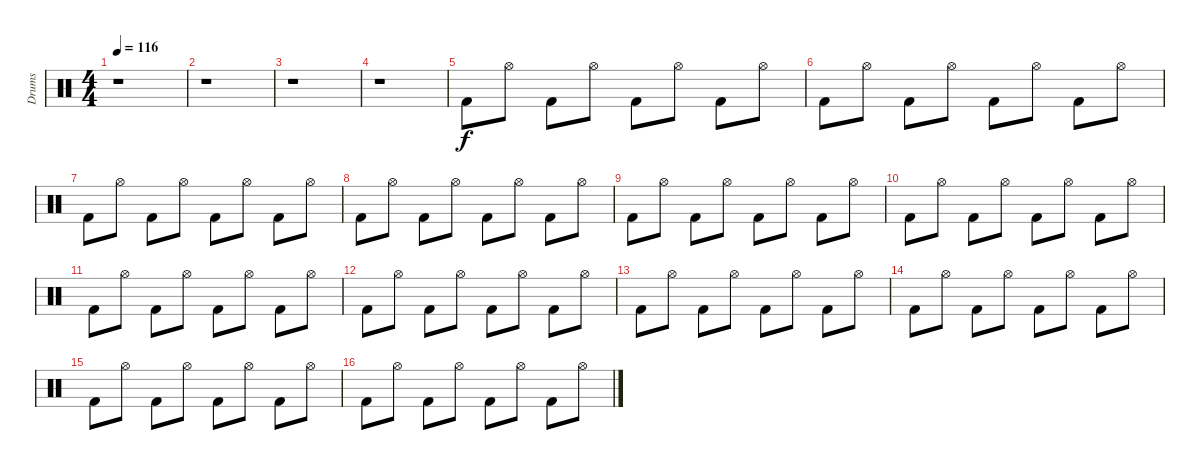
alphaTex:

\track ("Drums" "Drums") {instrument percussion}
\staff {score}
\articulation defaults
\ts (4 4)
\tempo 116
\clef neutral
\ks c
r.1{dy f} |
r.1 |
r.1 |
r.1 |
"Kick (hit) 2".8 "Hi-Hat (open)".8 "Kick (hit) 2".8 "Hi-Hat (open)".8 "Kick (hit) 2".8 "Hi-Hat (open)".8 "Kick (hit) 2".8 "Hi-Hat (open)".8 |
"Kick (hit) 2".8 "Hi-Hat (open)".8 "Kick (hit) 2".8 "Hi-Hat (open)".8 "Kick (hit) 2".8 "Hi-Hat (open)".8 "Kick (hit) 2".8 "Hi-Hat (open)".8 |
"Kick (hit) 2".8 "Hi-Hat (open)".8 "Kick (hit) 2".8 "Hi-Hat (open)".8 "Kick (hit) 2".8 "Hi-Hat (open)".8 "Kick (hit) 2".8 "Hi-Hat (open)".8 |
"Kick (hit) 2".8 "Hi-Hat (open)".8 "Kick (hit) 2".8 "Hi-Hat (open)".8 "Kick (hit) 2".8 "Hi-Hat (open)".8 "Kick (hit) 2".8 "Hi-Hat (open)".8 |
"Kick (hit) 2".8 "Hi-Hat (open)".8 "Kick (hit) 2".8 "Hi-Hat (open)".8 "Kick (hit) 2".8 "Hi-Hat (open)".8 "Kick (hit) 2".8 "Hi-Hat (open)".8 |
"Kick (hit) 2".8 "Hi-Hat (open)".8 "Kick (hit) 2".8 "Hi-Hat (open)".8 "Kick (hit) 2".8 "Hi-Hat (open)".8 "Kick (hit) 2".8 "Hi-Hat (open)".8 |
"Kick (hit) 2".8 "Hi-Hat (open)".8 "Kick (hit) 2".8 "Hi-Hat (open)".8 "Kick (hit) 2".8 "Hi-Hat (open)".8 "Kick (hit) 2".8 "Hi-Hat (open)".8 |
"Kick (hit) 2".8 "Hi-Hat (open)".8 "Kick (hit) 2".8 "Hi-Hat (open)".8 "Kick (hit) 2".8 "Hi-Hat (open)".8 "Kick (hit) 2".8 "Hi-Hat (open)".8 |
"Kick (hit) 2".8 "Hi-Hat (open)".8 "Kick (hit) 2".8 "Hi-Hat (open)".8 "Kick (hit) 2".8 "Hi-Hat (open)".8 "Kick (hit) 2".8 "Hi-Hat (open)".8 |
"Kick (hit) 2".8 "Hi-Hat (open)".8 "Kick (hit) 2".8 "Hi-Hat (open)".8 "Kick (hit) 2".8 "Hi-Hat (open)".8 "Kick (hit) 2".8 "Hi-Hat (open)".8 |
"Kick (hit) 2".8 "Hi-Hat (open)".8 "Kick (hit) 2".8 "Hi-Hat (open)".8 "Kick (hit) 2".8 "Hi-Hat (open)".8 "Kick (hit) 2".8 "Hi-Hat (open)".8 |
"Kick (hit) 2".8 "Hi-Hat (open)".8 "Kick (hit) 2".8 "Hi-Hat (open)".8 "Kick (hit) 2".8 "Hi-Hat (open)".8 "Kick (hit) 2".8 "Hi-Hat (open)".8
